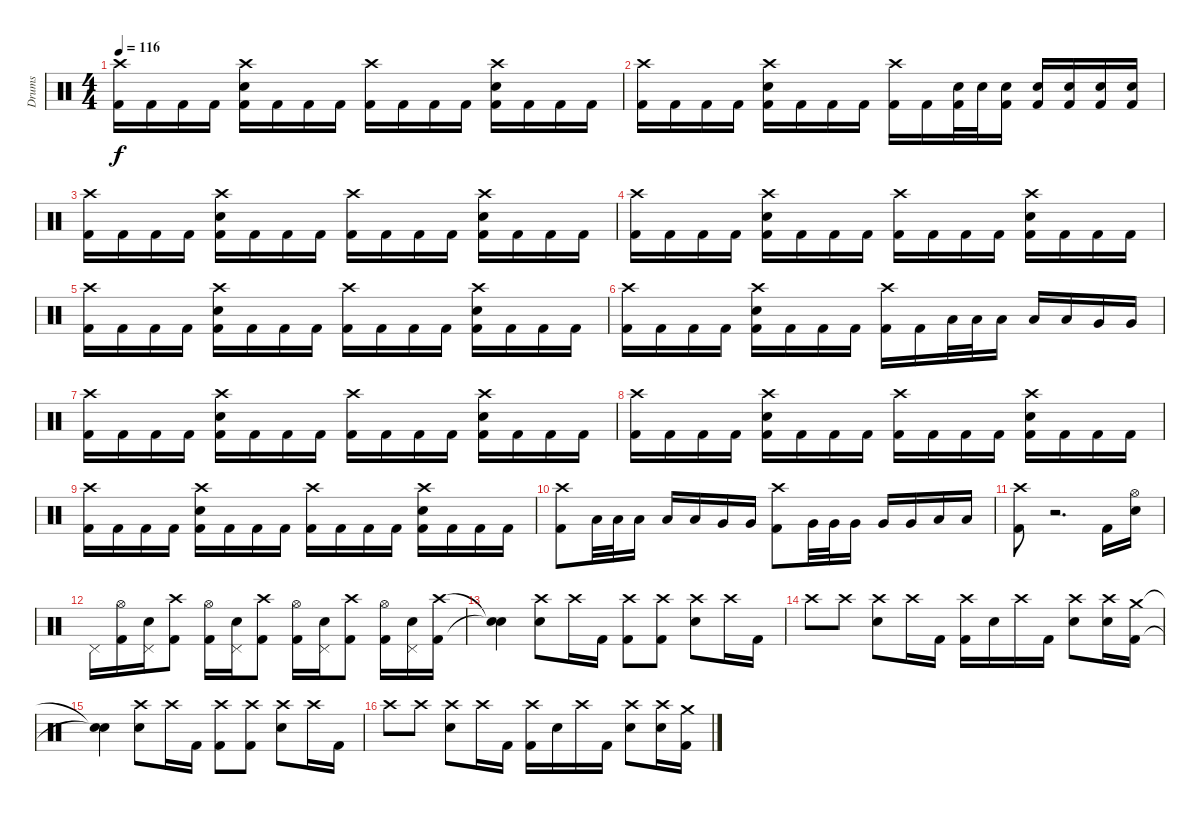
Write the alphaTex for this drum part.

\track ("Drums" "Drums") {instrument percussion}
\staff {score}
\articulation defaults
\ts (4 4)
\tempo 116
\clef neutral
\ks c
("Crash high (hit)" "Kick (hit) 2").16{dy f} "Kick (hit) 2".16 "Kick (hit) 2".16 "Kick (hit) 2".16 ("Crash high (hit)" "Electric Snare (hit)" "Kick (hit) 2").16 "Kick (hit) 2".16 "Kick (hit) 2".16 "Kick (hit) 2".16 ("Crash high (hit)" "Kick (hit) 2").16 "Kick (hit) 2".16 "Kick (hit) 2".16 "Kick (hit) 2".16 ("Crash high (hit)" "Electric Snare (hit)" "Kick (hit) 2").16 "Kick (hit) 2".16 "Kick (hit) 2".16 "Kick (hit) 2".16 |
("Crash high (hit)" "Kick (hit) 2").16 "Kick (hit) 2".16 "Kick (hit) 2".16 "Kick (hit) 2".16 ("Crash high (hit)" "Electric Snare (hit)" "Kick (hit) 2").16 "Kick (hit) 2".16 "Kick (hit) 2".16 "Kick (hit) 2".16 ("Crash high (hit)" "Kick (hit) 2").16 "Kick (hit) 2".16 ("Electric Snare (hit)" "Kick (hit) 2").32 "Electric Snare (hit)".32 ("Electric Snare (hit)" "Kick (hit) 2").16 ("Electric Snare (hit)" "Kick (hit) 2").16 ("Electric Snare (hit)" "Kick (hit) 2").16 ("Electric Snare (hit)" "Kick (hit) 2").16 ("Electric Snare (hit)" "Kick (hit) 2").16 |
("Crash high (hit)" "Kick (hit) 2").16 "Kick (hit) 2".16 "Kick (hit) 2".16 "Kick (hit) 2".16 ("Crash high (hit)" "Electric Snare (hit)" "Kick (hit) 2").16 "Kick (hit) 2".16 "Kick (hit) 2".16 "Kick (hit) 2".16 ("Crash high (hit)" "Kick (hit) 2").16 "Kick (hit) 2".16 "Kick (hit) 2".16 "Kick (hit) 2".16 ("Crash high (hit)" "Electric Snare (hit)" "Kick (hit) 2").16 "Kick (hit) 2".16 "Kick (hit) 2".16 "Kick (hit) 2".16 |
("Crash high (hit)" "Kick (hit) 2").16 "Kick (hit) 2".16 "Kick (hit) 2".16 "Kick (hit) 2".16 ("Crash high (hit)" "Electric Snare (hit)" "Kick (hit) 2").16 "Kick (hit) 2".16 "Kick (hit) 2".16 "Kick (hit) 2".16 ("Crash high (hit)" "Kick (hit) 2").16 "Kick (hit) 2".16 "Kick (hit) 2".16 "Kick (hit) 2".16 ("Crash high (hit)" "Electric Snare (hit)" "Kick (hit) 2").16 "Kick (hit) 2".16 "Kick (hit) 2".16 "Kick (hit) 2".16 |
("Crash high (hit)" "Kick (hit) 2").16 "Kick (hit) 2".16 "Kick (hit) 2".16 "Kick (hit) 2".16 ("Crash high (hit)" "Electric Snare (hit)" "Kick (hit) 2").16 "Kick (hit) 2".16 "Kick (hit) 2".16 "Kick (hit) 2".16 ("Crash high (hit)" "Kick (hit) 2").16 "Kick (hit) 2".16 "Kick (hit) 2".16 "Kick (hit) 2".16 ("Crash high (hit)" "Electric Snare (hit)" "Kick (hit) 2").16 "Kick (hit) 2".16 "Kick (hit) 2".16 "Kick (hit) 2".16 |
("Crash high (hit)" "Kick (hit) 2").16 "Kick (hit) 2".16 "Kick (hit) 2".16 "Kick (hit) 2".16 ("Crash high (hit)" "Electric Snare (hit)" "Kick (hit) 2").16 "Kick (hit) 2".16 "Kick (hit) 2".16 "Kick (hit) 2".16 ("Crash high (hit)" "Kick (hit) 2").16 "Kick (hit) 2".16 "Low Tom (hit)".32 "Low Tom (hit)".32 "Low Tom (hit)".16 "Low Tom (hit)".16 "Low Tom (hit)".16 "Very Low Tom (hit)".16 "Very Low Tom (hit)".16 |
("Crash high (hit)" "Kick (hit) 2").16 "Kick (hit) 2".16 "Kick (hit) 2".16 "Kick (hit) 2".16 ("Crash high (hit)" "Electric Snare (hit)" "Kick (hit) 2").16 "Kick (hit) 2".16 "Kick (hit) 2".16 "Kick (hit) 2".16 ("Crash high (hit)" "Kick (hit) 2").16 "Kick (hit) 2".16 "Kick (hit) 2".16 "Kick (hit) 2".16 ("Crash high (hit)" "Electric Snare (hit)" "Kick (hit) 2").16 "Kick (hit) 2".16 "Kick (hit) 2".16 "Kick (hit) 2".16 |
("Crash high (hit)" "Kick (hit) 2").16 "Kick (hit) 2".16 "Kick (hit) 2".16 "Kick (hit) 2".16 ("Crash high (hit)" "Electric Snare (hit)" "Kick (hit) 2").16 "Kick (hit) 2".16 "Kick (hit) 2".16 "Kick (hit) 2".16 ("Crash high (hit)" "Kick (hit) 2").16 "Kick (hit) 2".16 "Kick (hit) 2".16 "Kick (hit) 2".16 ("Crash high (hit)" "Electric Snare (hit)" "Kick (hit) 2").16 "Kick (hit) 2".16 "Kick (hit) 2".16 "Kick (hit) 2".16 |
("Crash high (hit)" "Kick (hit) 2").16 "Kick (hit) 2".16 "Kick (hit) 2".16 "Kick (hit) 2".16 ("Crash high (hit)" "Electric Snare (hit)" "Kick (hit) 2").16 "Kick (hit) 2".16 "Kick (hit) 2".16 "Kick (hit) 2".16 ("Crash high (hit)" "Kick (hit) 2").16 "Kick (hit) 2".16 "Kick (hit) 2".16 "Kick (hit) 2".16 ("Crash high (hit)" "Electric Snare (hit)" "Kick (hit) 2").16 "Kick (hit) 2".16 "Kick (hit) 2".16 "Kick (hit) 2".16 |
("Crash high (hit)" "Kick (hit) 2").8 "Low Tom (hit)".32 "Low Tom (hit)".32 "Low Tom (hit)".16 "Low Tom (hit)".16 "Low Tom (hit)".16 "Very Low Tom (hit)".16 "Very Low Tom (hit)".16 ("Crash high (hit)" "Kick (hit) 2").8 "Very Low Tom (hit)".32 "Very Low Tom (hit)".32 "Very Low Tom (hit)".16 "Very Low Tom (hit)".16 "Very Low Tom (hit)".16 "Low Floor Tom (hit)".16 "Low Floor Tom (hit)".16 |
("Crash high (hit)" "Kick (hit) 2").8 r.2{d volume 0} "Kick (hit) 2".16{volume 14} ("Hi-Hat (open)" "Electric Snare (hit)").16 |
"Pedal Hi-Hat (hit)".16 ("Hi-Hat (open)" "Kick (hit) 2").16 ("Pedal Hi-Hat (hit)" "Electric Snare (hit)").16 ("Crash high (hit)" "Kick (hit) 2").8 ("Hi-Hat (open)" "Kick (hit) 2").16 ("Pedal Hi-Hat (hit)" "Electric Snare (hit)").16 ("Crash high (hit)" "Kick (hit) 2").8 ("Hi-Hat (open)" "Kick (hit) 2").16 ("Pedal Hi-Hat (hit)" "Electric Snare (hit)").16 ("Crash high (hit)" "Kick (hit) 2").8 ("Hi-Hat (open)" "Kick (hit) 2").16 ("Pedal Hi-Hat (hit)" "Electric Snare (hit)").16 ("Crash high (hit)" "Kick (hit) 2").16 |
("Snare (hit)"{t} "Snare (hit)"{t}).4 ("Crash high (hit)" "Electric Snare (hit)").8 "Crash high (hit)".16 "Kick (hit) 2".16 ("Crash high (hit)" "Kick (hit) 2").8 ("Crash high (hit)" "Kick (hit) 2").8 ("Crash high (hit)" "Electric Snare (hit)").8 "Crash high (hit)".16 "Kick (hit) 2".16 |
"Crash high (hit)".8 "Crash high (hit)".8 ("Crash high (hit)" "Electric Snare (hit)").8 "Crash high (hit)".16 "Kick (hit) 2".16 ("Crash high (hit)" "Kick (hit) 2").16 "Electric Snare (hit)".16 "Crash high (hit)".16 "Kick (hit) 2".16 ("Crash high (hit)" "Electric Snare (hit)").8 ("Crash high (hit)" "Electric Snare (hit)").16 ("Crash medium (hit)" "Kick (hit) 2").16 |
("Snare (hit)"{t} "Snare (hit)"{t}).4 ("Crash high (hit)" "Electric Snare (hit)").8 "Crash high (hit)".16 "Kick (hit) 2".16 ("Crash high (hit)" "Kick (hit) 2").8 ("Crash high (hit)" "Kick (hit) 2").8 ("Crash high (hit)" "Electric Snare (hit)").8 "Crash high (hit)".16 "Kick (hit) 2".16 |
"Crash high (hit)".8 "Crash high (hit)".8 ("Crash high (hit)" "Electric Snare (hit)").8 "Crash high (hit)".16 "Kick (hit) 2".16 ("Crash high (hit)" "Kick (hit) 2").16 "Electric Snare (hit)".16 "Crash high (hit)".16 "Kick (hit) 2".16 ("Crash high (hit)" "Electric Snare (hit)").8 ("Crash high (hit)" "Electric Snare (hit)").16 ("Crash medium (hit)" "Kick (hit) 2").16
